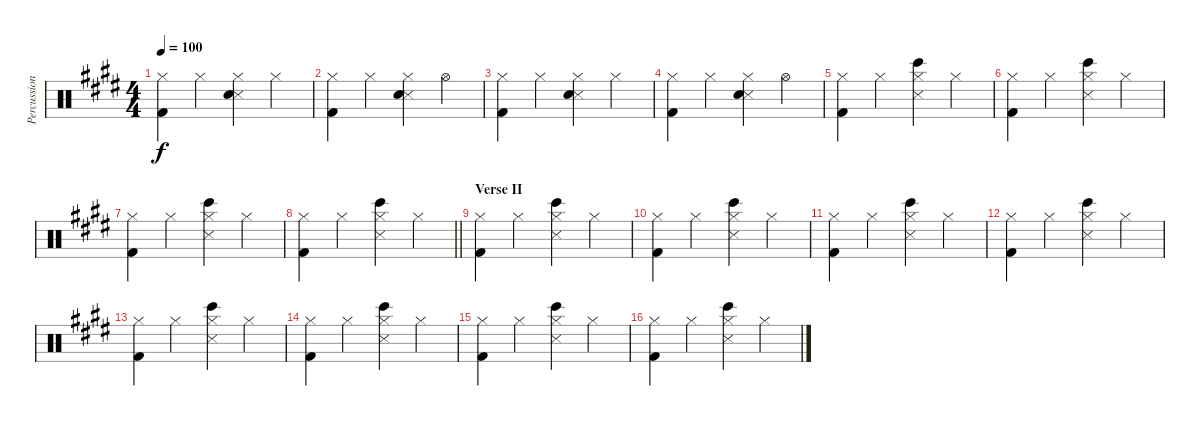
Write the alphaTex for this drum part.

\track ("Percussion" "Percussion") {instrument percussion}
\staff {score}
\articulation defaults
\ts (4 4)
\tempo 100
\clef neutral
\ks e
("Hi-Hat (closed)" "Kick (hit) 2").4{dy f} "Hi-Hat (closed)".4 ("Hi-Hat (closed)" "Snare (side stick) 3" "Snare (hit) 2").4 "Hi-Hat (closed)".4 |
("Hi-Hat (closed)" "Kick (hit) 2").4 "Hi-Hat (closed)".4 ("Hi-Hat (closed)" "Snare (side stick) 3" "Snare (hit) 2").4 "Hi-Hat (open)".4 |
("Hi-Hat (closed)" "Kick (hit) 2").4 "Hi-Hat (closed)".4 ("Hi-Hat (closed)" "Snare (side stick) 3" "Snare (hit) 2").4 "Hi-Hat (closed)".4 |
("Hi-Hat (closed)" "Kick (hit) 2").4 "Hi-Hat (closed)".4 ("Hi-Hat (closed)" "Snare (side stick) 3" "Snare (hit) 2").4 "Hi-Hat (open)".4 |
("Hi-Hat (closed)" "Kick (hit) 2").4{volume 11} "Hi-Hat (closed)".4 ("Hi-Hat (closed)" "Snare (side stick) 3" "Bongo High (hit)").4 "Hi-Hat (closed)".4 |
("Hi-Hat (closed)" "Kick (hit) 2").4 "Hi-Hat (closed)".4 ("Hi-Hat (closed)" "Snare (side stick) 3" "Bongo High (hit)").4 "Hi-Hat (closed)".4 |
("Hi-Hat (closed)" "Kick (hit) 2").4 "Hi-Hat (closed)".4 ("Hi-Hat (closed)" "Snare (side stick) 3" "Bongo High (hit)").4 "Hi-Hat (closed)".4 |
\barLineRight lightlight
("Hi-Hat (closed)" "Kick (hit) 2").4 "Hi-Hat (closed)".4 ("Hi-Hat (closed)" "Snare (side stick) 3" "Bongo High (hit)").4 "Hi-Hat (closed)".4 |
\section ("" "Verse II")
("Hi-Hat (closed)" "Kick (hit) 2").4 "Hi-Hat (closed)".4 ("Hi-Hat (closed)" "Snare (side stick) 3" "Bongo High (hit)").4 "Hi-Hat (closed)".4 |
("Hi-Hat (closed)" "Kick (hit) 2").4 "Hi-Hat (closed)".4 ("Hi-Hat (closed)" "Snare (side stick) 3" "Bongo High (hit)").4 "Hi-Hat (closed)".4 |
("Hi-Hat (closed)" "Kick (hit) 2").4 "Hi-Hat (closed)".4 ("Hi-Hat (closed)" "Snare (side stick) 3" "Bongo High (hit)").4 "Hi-Hat (closed)".4 |
("Hi-Hat (closed)" "Kick (hit) 2").4 "Hi-Hat (closed)".4 ("Hi-Hat (closed)" "Snare (side stick) 3" "Bongo High (hit)").4 "Hi-Hat (closed)".4 |
("Hi-Hat (closed)" "Kick (hit) 2").4 "Hi-Hat (closed)".4 ("Hi-Hat (closed)" "Snare (side stick) 3" "Bongo High (hit)").4 "Hi-Hat (closed)".4 |
("Hi-Hat (closed)" "Kick (hit) 2").4 "Hi-Hat (closed)".4 ("Hi-Hat (closed)" "Snare (side stick) 3" "Bongo High (hit)").4 "Hi-Hat (closed)".4 |
("Hi-Hat (closed)" "Kick (hit) 2").4 "Hi-Hat (closed)".4 ("Hi-Hat (closed)" "Snare (side stick) 3" "Bongo High (hit)").4 "Hi-Hat (closed)".4 |
("Hi-Hat (closed)" "Kick (hit) 2").4 "Hi-Hat (closed)".4 ("Hi-Hat (closed)" "Snare (side stick) 3" "Bongo High (hit)").4 "Hi-Hat (closed)".4
